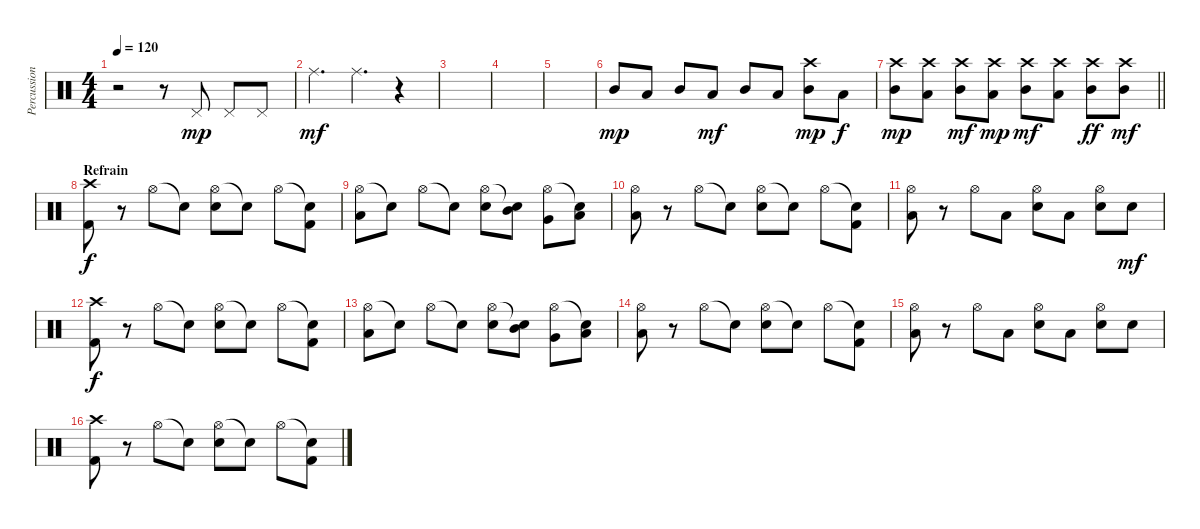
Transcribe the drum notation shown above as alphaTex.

\track ("Percussions" "Percussion") {instrument percussion}
\staff {score}
\articulation defaults
\ts (4 4)
\tempo 120
\clef neutral
\ks c
r.2{dy p} r.8 "Pedal Hi-Hat (hit)".8{dy mp} "Pedal Hi-Hat (hit)".8 "Pedal Hi-Hat (hit)".8 |
"Ride (middle)".4{d dy mf} "Ride (middle)".4{d} r.4 |
|
|
|
"Mid Tom (hit)".8{dy mp} "Low Tom (hit)".8 "Mid Tom (hit)".8 "Low Tom (hit)".8{dy mf} "Mid Tom (hit)".8 "Low Tom (hit)".8 ("Mid Tom (hit)" "Crash high (hit)").8{dy mp} "Low Tom (hit)".8{dy f} |
\barLineRight lightlight
("Mid Tom (hit)" "Crash high (hit)").8{dy mp} ("Low Tom (hit)" "Crash high (hit)").8 ("Mid Tom (hit)" "Crash high (hit)").8{dy mf} ("Low Tom (hit)" "Crash high (hit)").8{dy mp} ("Mid Tom (hit)" "Crash high (hit)").8{dy mf} ("Low Tom (hit)" "Crash high (hit)").8 ("Mid Tom (hit)" "Crash high (hit)").8{dy ff} ("Mid Tom (hit)" "Crash high (hit)").8{dy mf} |
\section ("" "Refrain")
("Kick (hit) 2" "Crash high (hit)").8{dy f} r.8 "Hi-Hat (open)".8 "Snare (hit)"{t}.8 ("Hi-Hat (open)" "Snare (hit) 2").8 "Snare (hit)"{t}.8 "Hi-Hat (open)".8 ("Snare (hit)"{t} "Kick (hit) 2").8 |
("Hi-Hat (open)" "Low Tom (hit)").8 "Snare (hit)"{t}.8 "Hi-Hat (open)".8 "Snare (hit)"{t}.8 ("Hi-Hat (open)" "Snare (hit) 2").8 ("Snare (hit)"{t} "Mid Tom (hit)").8 ("Hi-Hat (open)" "Very Low Tom (hit)").8 ("Snare (hit)"{t} "Low Floor Tom (hit)").8 |
("Hi-Hat (open)" "Low Tom (hit)").8 r.8 "Hi-Hat (open)".8 "Snare (hit)"{t}.8 ("Hi-Hat (open)" "Snare (hit) 2").8 "Snare (hit)"{t}.8 "Hi-Hat (open)".8 ("Snare (hit)"{t} "Kick (hit) 2").8 |
("Hi-Hat (open)" "Low Tom (hit)").8 r.8 "Hi-Hat (open)".8 "Low Tom (hit)".8 ("Hi-Hat (open)" "Snare (hit) 2").8 "Low Floor Tom (hit)".8 ("Hi-Hat (open)" "Snare (hit) 2").8 "Snare (hit) 2".8{dy mf} |
("Kick (hit) 2" "Crash high (hit)").8{dy f} r.8 "Hi-Hat (open)".8 "Snare (hit)"{t}.8 ("Hi-Hat (open)" "Snare (hit) 2").8 "Snare (hit)"{t}.8 "Hi-Hat (open)".8 ("Snare (hit)"{t} "Kick (hit) 2").8 |
("Hi-Hat (open)" "Low Tom (hit)").8 "Snare (hit)"{t}.8 "Hi-Hat (open)".8 "Snare (hit)"{t}.8 ("Hi-Hat (open)" "Snare (hit) 2").8 ("Snare (hit)"{t} "Mid Tom (hit)").8 ("Hi-Hat (open)" "Very Low Tom (hit)").8 ("Snare (hit)"{t} "Low Floor Tom (hit)").8 |
("Hi-Hat (open)" "Low Tom (hit)").8 r.8 "Hi-Hat (open)".8 "Snare (hit)"{t}.8 ("Hi-Hat (open)" "Snare (hit) 2").8 "Snare (hit)"{t}.8 "Hi-Hat (open)".8 ("Snare (hit)"{t} "Kick (hit) 2").8 |
("Hi-Hat (open)" "Low Tom (hit)").8 r.8 "Hi-Hat (open)".8 "Low Tom (hit)".8 ("Hi-Hat (open)" "Snare (hit) 2").8 "Low Floor Tom (hit)".8 ("Hi-Hat (open)" "Snare (hit) 2").8 "Snare (hit) 2".8 |
("Kick (hit) 2" "Crash high (hit)").8 r.8 "Hi-Hat (open)".8 "Snare (hit)"{t}.8 ("Hi-Hat (open)" "Snare (hit) 2").8 "Snare (hit)"{t}.8 "Hi-Hat (open)".8 ("Snare (hit)"{t} "Kick (hit) 2").8
